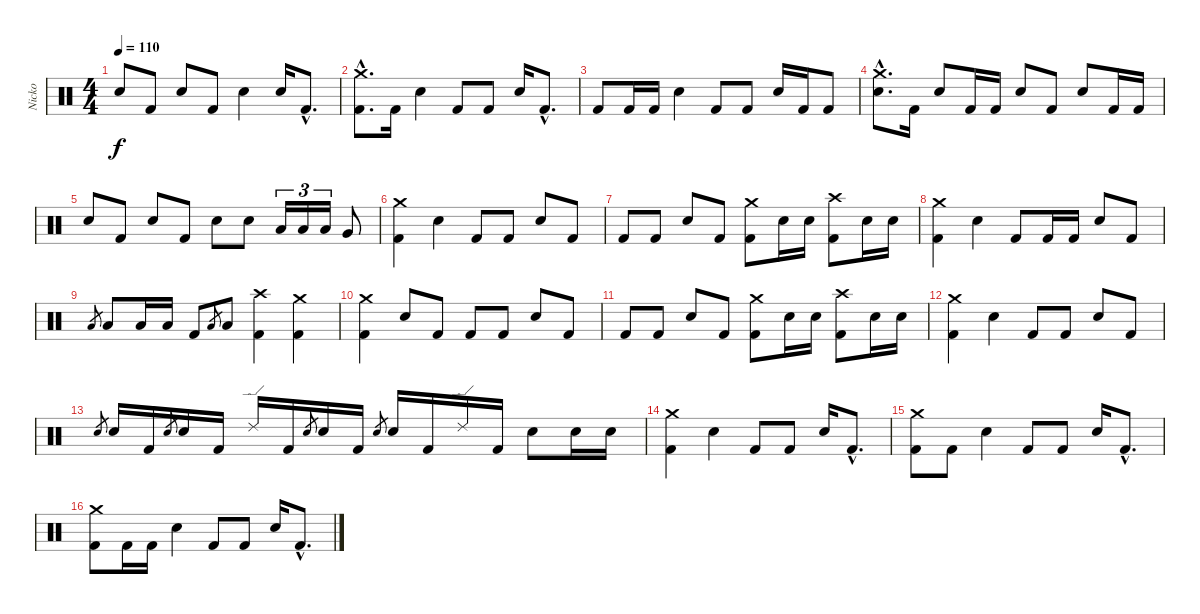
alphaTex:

\track ("Nicko" "Nicko") {instrument percussion}
\staff {score}
\articulation defaults
\ts (4 4)
\tempo 110
\clef neutral
\ks c "Electric Snare (hit)".8{dy f} "Kick (hit) 2".8 "Electric Snare (hit)".8 "Kick (hit) 2".8 "Electric Snare (hit)".4 "Electric Snare (hit)".16 "Kick (hit) 2"{hac}.8{d}
|
("Crash medium (hit)"{hac} "Kick (hit) 2"{hac}).8{d} "Kick (hit) 2".16 "Electric Snare (hit)".4 "Kick (hit) 2".8 "Kick (hit) 2".8 "Electric Snare (hit)".16 "Kick (hit) 2"{hac}.8{d} |
"Kick (hit) 2".8 "Kick (hit) 2".16 "Kick (hit) 2".16 "Electric Snare (hit)".4 "Kick (hit) 2".8 "Kick (hit) 2".8 "Electric Snare (hit)".16 "Kick (hit) 2".16 "Kick (hit) 2".8 |
("Crash medium (hit)"{hac} "Electric Snare (hit)"{hac}).8{d} "Kick (hit) 2".16 "Electric Snare (hit)".8 "Kick (hit) 2".16 "Kick (hit) 2".16 "Electric Snare (hit)".8 "Kick (hit) 2".8 "Electric Snare (hit)".8 "Kick (hit) 2".16 "Kick (hit) 2".16 |
"Electric Snare (hit)".8 "Kick (hit) 2".8 "Electric Snare (hit)".8 "Kick (hit) 2".8 "Electric Snare (hit)".8 "Electric Snare (hit)".8 "Low Tom (hit)".16{tu (3 2)} "Low Tom (hit)".16{tu (3 2)} "Low Tom (hit)".16{tu (3 2)} "Very Low Tom (hit)".8 |
("Crash medium (hit)" "Kick (hit) 2").4 "Electric Snare (hit)".4 "Kick (hit) 2".8 "Kick (hit) 2".8 "Electric Snare (hit)".8 "Kick (hit) 2".8 |
"Kick (hit) 2".8 "Kick (hit) 2".8 "Electric Snare (hit)".8 "Kick (hit) 2".8 ("Crash medium (hit)" "Kick (hit) 2").8 "Electric Snare (hit)".16 "Electric Snare (hit)".16 ("Crash high (hit)" "Kick (hit) 2").8 "Electric Snare (hit)".16 "Electric Snare (hit)".16 |
("Crash medium (hit)" "Kick (hit) 2").4 "Electric Snare (hit)".4 "Kick (hit) 2".8 "Kick (hit) 2".16 "Kick (hit) 2".16 "Electric Snare (hit)".8 "Kick (hit) 2".8 |
"Low Tom (hit)".8{gr} "Low Tom (hit)".8 "Low Tom (hit)".16 "Low Tom (hit)".16 "Kick (hit) 2".8 "Low Tom (hit)".8{gr} "Low Tom (hit)".8 ("Crash high (hit)" "Kick (hit) 2").4 ("Crash medium (hit)" "Kick (hit) 2").4 |
("Crash medium (hit)" "Kick (hit) 2").4 "Electric Snare (hit)".8 "Kick (hit) 2".8 "Kick (hit) 2".8 "Kick (hit) 2".8 "Electric Snare (hit)".8 "Kick (hit) 2".8 |
"Kick (hit) 2".8 "Kick (hit) 2".8 "Electric Snare (hit)".8 "Kick (hit) 2".8 ("Crash medium (hit)" "Kick (hit) 2").8 "Electric Snare (hit)".16 "Electric Snare (hit)".16 ("Crash high (hit)" "Kick (hit) 2").8 "Electric Snare (hit)".16 "Electric Snare (hit)".16 |
("Crash medium (hit)" "Kick (hit) 2").4 "Electric Snare (hit)".4 "Kick (hit) 2".8 "Kick (hit) 2".8 "Electric Snare (hit)".8 "Kick (hit) 2".8 |
"Electric Snare (hit)".8{gr} "Electric Snare (hit)".16 "Kick (hit) 2".16 "Electric Snare (hit)".8{gr} "Electric Snare (hit)".16 "Kick (hit) 2".16 "Ride (edge) 2".16 "Kick (hit) 2".16 "Electric Snare (hit)".8{gr} "Electric Snare (hit)".16 "Kick (hit) 2".16 "Electric Snare (hit)".8{gr} "Electric Snare (hit)".16 "Kick (hit) 2".16 "Ride (edge) 2".16 "Kick (hit) 2".16 "Electric Snare (hit)".8 "Electric Snare (hit)".16 "Electric Snare (hit)".16 |
("Crash medium (hit)" "Kick (hit) 2").4 "Electric Snare (hit)".4 "Kick (hit) 2".8 "Kick (hit) 2".8 "Electric Snare (hit)".16 "Kick (hit) 2"{hac}.8{d} |
("Crash medium (hit)" "Kick (hit) 2").8 "Kick (hit) 2".8 "Electric Snare (hit)".4 "Kick (hit) 2".8 "Kick (hit) 2".8 "Electric Snare (hit)".16 "Kick (hit) 2"{hac}.8{d} |
("Crash medium (hit)" "Kick (hit) 2").8 "Kick (hit) 2".16 "Kick (hit) 2".16 "Electric Snare (hit)".4 "Kick (hit) 2".8 "Kick (hit) 2".8 "Electric Snare (hit)".16 "Kick (hit) 2"{hac}.8{d}
